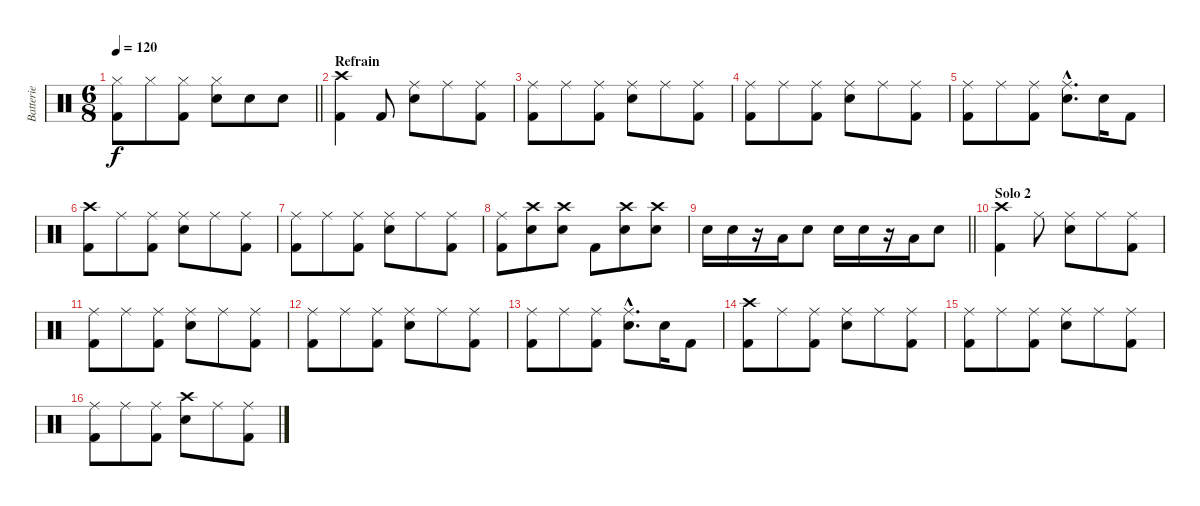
\track ("Batterie" "Batterie") {instrument percussion}
\staff {score}
\articulation defaults
\ts (6 8)
\tempo 120
\clef neutral
\barLineRight lightlight
\ks c
("Hi-Hat (closed)" "Kick (hit) 2").8{dy f} "Hi-Hat (closed)".8 ("Hi-Hat (closed)" "Kick (hit) 2").8 ("Hi-Hat (closed)" "Snare (hit) 2").8 "Snare (hit) 2".8 "Snare (hit) 2".8 |
\section ("" "Refrain")
("Crash high (hit)" "Kick (hit) 2").4 "Kick (hit) 2".8 ("Ride (middle)" "Snare (hit) 2").8 "Ride (middle)".8 ("Ride (middle)" "Kick (hit) 2").8 |
("Ride (middle)" "Kick (hit) 2").8 "Ride (middle)".8 ("Ride (middle)" "Kick (hit) 2").8 ("Ride (middle)" "Snare (hit) 2").8 "Ride (middle)".8 ("Ride (middle)" "Kick (hit) 2").8 |
("Ride (middle)" "Kick (hit) 2").8 "Ride (middle)".8 ("Ride (middle)" "Kick (hit) 2").8 ("Ride (middle)" "Snare (hit) 2").8 "Ride (middle)".8 ("Ride (middle)" "Kick (hit) 2").8 |
("Ride (middle)" "Kick (hit) 2").8 "Ride (middle)".8 ("Ride (middle)" "Kick (hit) 2").8 ("Ride (middle)"{hac} "Snare (hit) 2"{hac}).8{d} "Snare (hit) 2".16 "Kick (hit) 2".8 |
("Crash high (hit)" "Kick (hit) 2").8 "Ride (middle)".8 ("Ride (middle)" "Kick (hit) 2").8 ("Ride (middle)" "Snare (hit) 2").8 "Ride (middle)".8 ("Ride (middle)" "Kick (hit) 2").8 |
("Ride (middle)" "Kick (hit) 2").8 "Ride (middle)".8 ("Ride (middle)" "Kick (hit) 2").8 ("Ride (middle)" "Snare (hit) 2").8 "Ride (middle)".8 ("Ride (middle)" "Kick (hit) 2").8 |
("Ride (middle)" "Kick (hit) 2").8 ("Crash high (hit)" "Snare (hit) 2").8 ("Crash high (hit)" "Snare (hit) 2").8 "Kick (hit) 2".8 ("Crash high (hit)" "Snare (hit) 2").8 ("Crash high (hit)" "Snare (hit) 2").8 |
\barLineRight lightlight "Snare (hit) 2".16 "Snare (hit) 2".16
r.16 "Low Tom (hit)".16 "Snare (hit) 2".8 "Snare (hit) 2".16 "Snare (hit) 2".16 r.16 "Low Floor Tom (hit)".16 "Snare (hit) 2".8 |
\section ("" "Solo 2")
("Crash high (hit)" "Kick (hit) 2").4 "Ride (middle)".8 ("Ride (middle)" "Snare (hit) 2").8 "Ride (middle)".8 ("Ride (middle)" "Kick (hit) 2").8 |
("Ride (middle)" "Kick (hit) 2").8 "Ride (middle)".8 ("Ride (middle)" "Kick (hit) 2").8 ("Ride (middle)" "Snare (hit) 2").8 "Ride (middle)".8 ("Ride (middle)" "Kick (hit) 2").8 |
("Ride (middle)" "Kick (hit) 2").8 "Ride (middle)".8 ("Ride (middle)" "Kick (hit) 2").8 ("Ride (middle)" "Snare (hit) 2").8 "Ride (middle)".8 ("Ride (middle)" "Kick (hit) 2").8 |
("Ride (middle)" "Kick (hit) 2").8 "Ride (middle)".8 ("Ride (middle)" "Kick (hit) 2").8 ("Ride (middle)"{hac} "Snare (hit) 2"{hac}).8{d} "Snare (hit) 2".16 "Kick (hit) 2".8 |
("Crash high (hit)" "Kick (hit) 2").8 "Ride (middle)".8 ("Ride (middle)" "Kick (hit) 2").8 ("Ride (middle)" "Snare (hit) 2").8 "Ride (middle)".8 ("Ride (middle)" "Kick (hit) 2").8 |
("Ride (middle)" "Kick (hit) 2").8 "Ride (middle)".8 ("Ride (middle)" "Kick (hit) 2").8 ("Ride (middle)" "Snare (hit) 2").8 "Ride (middle)".8 ("Ride (middle)" "Kick (hit) 2").8 |
("Ride (middle)" "Kick (hit) 2").8 "Ride (middle)".8 ("Ride (middle)" "Kick (hit) 2").8 ("Crash high (hit)" "Snare (hit) 2").8 "Ride (middle)".8 ("Ride (middle)" "Kick (hit) 2").8
